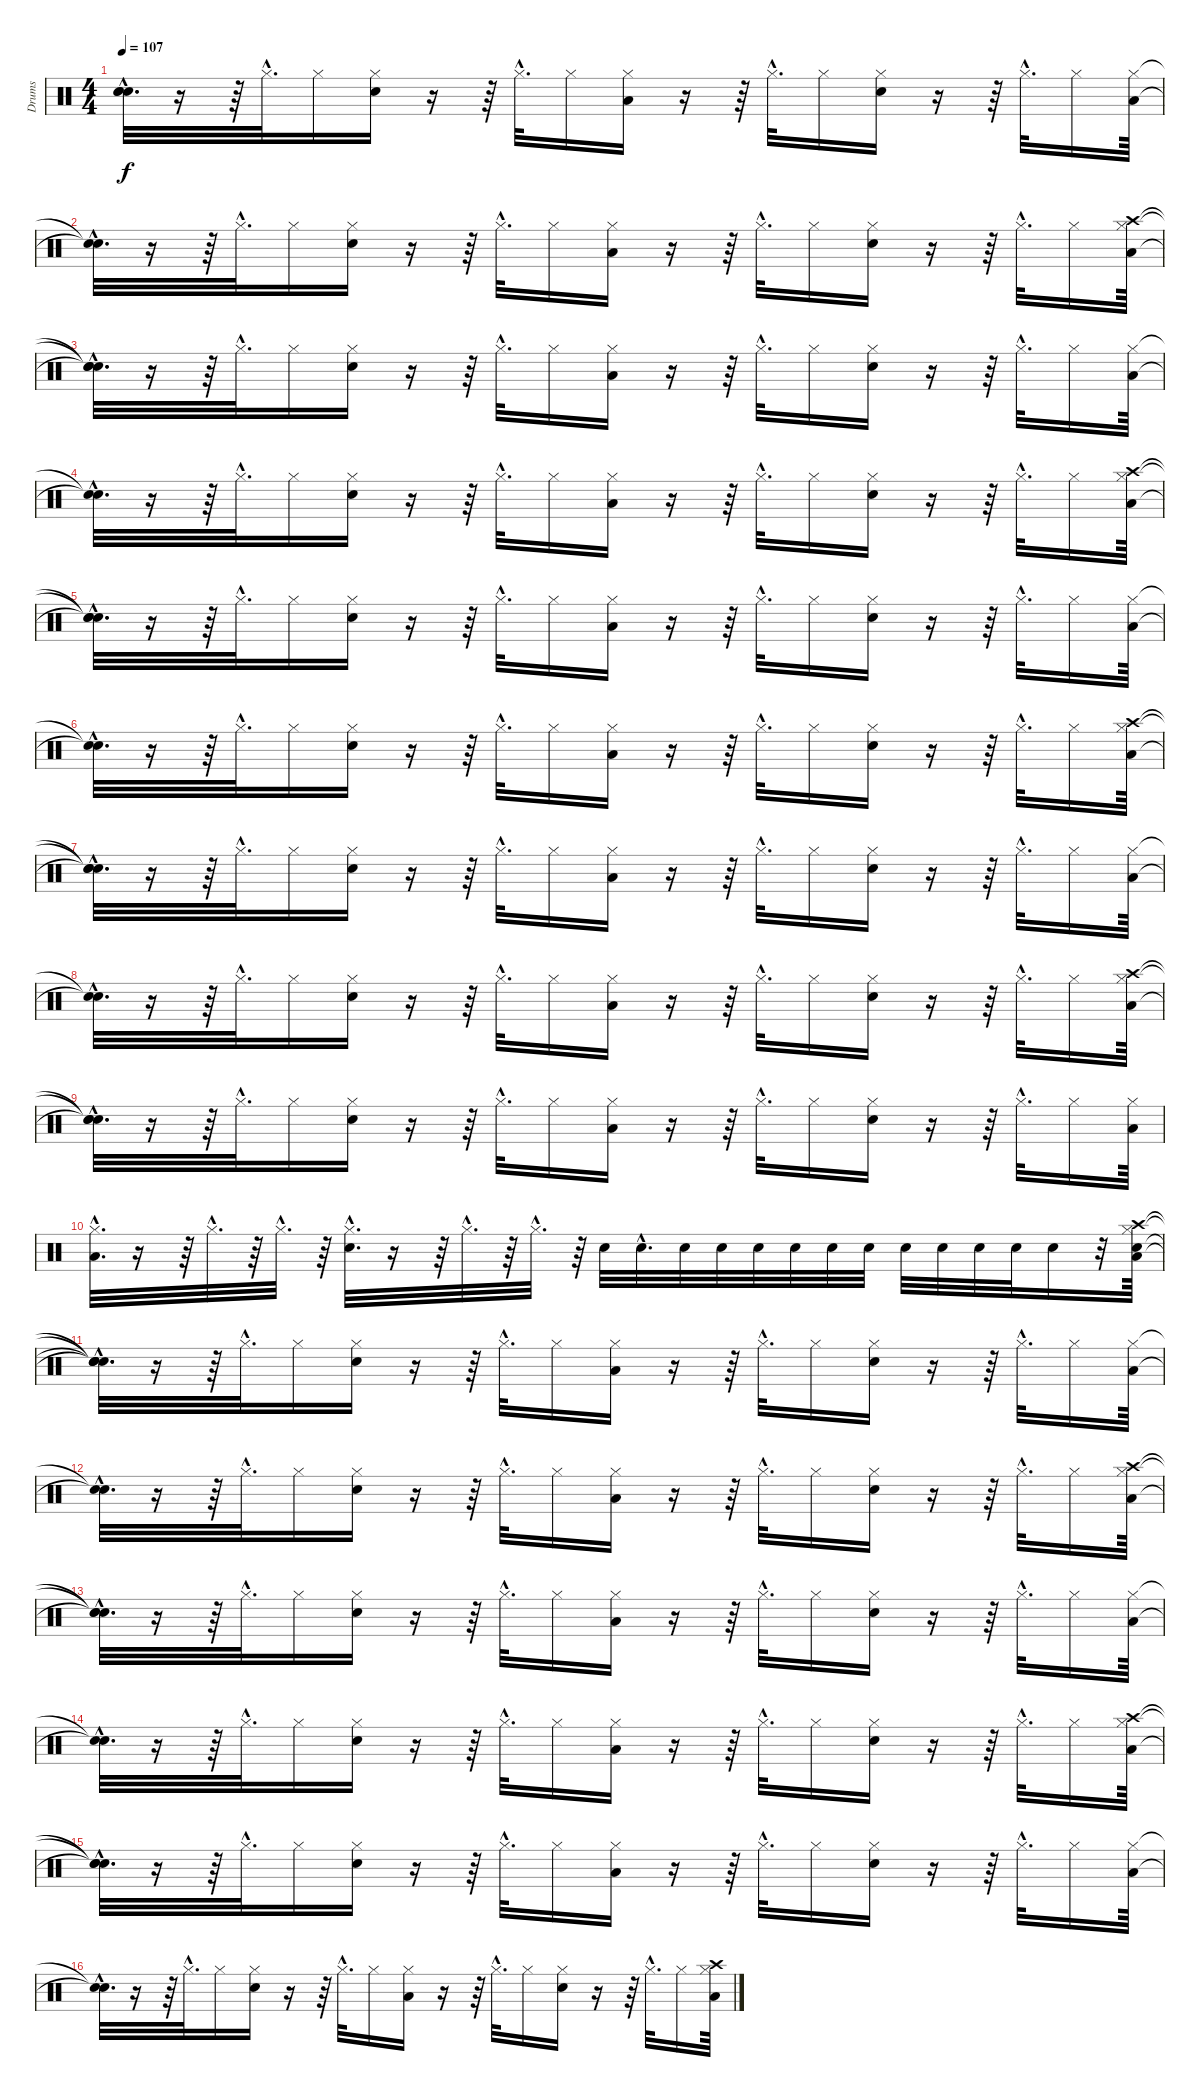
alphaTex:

\track ("Drums" "Drums") {instrument percussion}
\staff {score}
\articulation defaults
\ts (4 4)
\tempo 107
\clef neutral
\ks c
("Snare (hit)"{hac t} "Snare (hit)"{hac t} "Snare (hit)"{hac t}).32{d dy f} r.16 r.64 "Hi-Hat (closed)"{hac}.32{d} "Hi-Hat (closed)".16 ("Hi-Hat (closed)" "Snare (hit) 2").16 r.16 r.64 "Hi-Hat (closed)"{hac}.32{d} "Hi-Hat (closed)".16 ("Hi-Hat (closed)" "Low Tom (hit)").16 r.16 r.64 "Hi-Hat (closed)"{hac}.32{d} "Hi-Hat (closed)".16 ("Hi-Hat (closed)" "Snare (hit) 2").16 r.16 r.64 "Hi-Hat (closed)"{hac}.32{d} "Hi-Hat (closed)".16 ("Hi-Hat (closed)" "Low Tom (hit)").64 |
("Snare (hit)"{hac t} "Snare (hit)"{hac t}).32{d} r.16 r.64 "Hi-Hat (closed)"{hac}.32{d} "Hi-Hat (closed)".16 ("Hi-Hat (closed)" "Snare (hit) 2").16 r.16 r.64 "Hi-Hat (closed)"{hac}.32{d} "Hi-Hat (closed)".16 ("Hi-Hat (closed)" "Low Tom (hit)").16 r.16 r.64 "Hi-Hat (closed)"{hac}.32{d} "Hi-Hat (closed)".16 ("Hi-Hat (closed)" "Snare (hit) 2").16 r.16 r.64 "Hi-Hat (closed)"{hac}.32{d} "Hi-Hat (closed)".16 ("Hi-Hat (closed)" "Crash high (hit)" "Low Tom (hit)").64 |
("Snare (hit)"{hac t} "Snare (hit)"{hac t} "Snare (hit)"{hac t}).32{d} r.16 r.64 "Hi-Hat (closed)"{hac}.32{d} "Hi-Hat (closed)".16 ("Hi-Hat (closed)" "Snare (hit) 2").16 r.16 r.64 "Hi-Hat (closed)"{hac}.32{d} "Hi-Hat (closed)".16 ("Hi-Hat (closed)" "Low Tom (hit)").16 r.16 r.64 "Hi-Hat (closed)"{hac}.32{d} "Hi-Hat (closed)".16 ("Hi-Hat (closed)" "Snare (hit) 2").16 r.16 r.64 "Hi-Hat (closed)"{hac}.32{d} "Hi-Hat (closed)".16 ("Hi-Hat (closed)" "Low Tom (hit)").64 |
("Snare (hit)"{hac t} "Snare (hit)"{hac t}).32{d} r.16 r.64 "Hi-Hat (closed)"{hac}.32{d} "Hi-Hat (closed)".16 ("Hi-Hat (closed)" "Snare (hit) 2").16 r.16 r.64 "Hi-Hat (closed)"{hac}.32{d} "Hi-Hat (closed)".16 ("Hi-Hat (closed)" "Low Tom (hit)").16 r.16 r.64 "Hi-Hat (closed)"{hac}.32{d} "Hi-Hat (closed)".16 ("Hi-Hat (closed)" "Snare (hit) 2").16 r.16 r.64 "Hi-Hat (closed)"{hac}.32{d} "Hi-Hat (closed)".16 ("Hi-Hat (closed)" "Crash high (hit)" "Low Tom (hit)").64 |
("Snare (hit)"{hac t} "Snare (hit)"{hac t} "Snare (hit)"{hac t}).32{d} r.16 r.64 "Hi-Hat (closed)"{hac}.32{d} "Hi-Hat (closed)".16 ("Hi-Hat (closed)" "Snare (hit) 2").16 r.16 r.64 "Hi-Hat (closed)"{hac}.32{d} "Hi-Hat (closed)".16 ("Hi-Hat (closed)" "Low Tom (hit)").16 r.16 r.64 "Hi-Hat (closed)"{hac}.32{d} "Hi-Hat (closed)".16 ("Hi-Hat (closed)" "Snare (hit) 2").16 r.16 r.64 "Hi-Hat (closed)"{hac}.32{d} "Hi-Hat (closed)".16 ("Hi-Hat (closed)" "Low Tom (hit)").64 |
("Snare (hit)"{hac t} "Snare (hit)"{hac t}).32{d} r.16 r.64 "Hi-Hat (closed)"{hac}.32{d} "Hi-Hat (closed)".16 ("Hi-Hat (closed)" "Snare (hit) 2").16 r.16 r.64 "Hi-Hat (closed)"{hac}.32{d} "Hi-Hat (closed)".16 ("Hi-Hat (closed)" "Low Tom (hit)").16 r.16 r.64 "Hi-Hat (closed)"{hac}.32{d} "Hi-Hat (closed)".16 ("Hi-Hat (closed)" "Snare (hit) 2").16 r.16 r.64 "Hi-Hat (closed)"{hac}.32{d} "Hi-Hat (closed)".16 ("Hi-Hat (closed)" "Crash high (hit)" "Low Tom (hit)").64 |
("Snare (hit)"{hac t} "Snare (hit)"{hac t} "Snare (hit)"{hac t}).32{d} r.16 r.64 "Hi-Hat (closed)"{hac}.32{d} "Hi-Hat (closed)".16 ("Hi-Hat (closed)" "Snare (hit) 2").16 r.16 r.64 "Hi-Hat (closed)"{hac}.32{d} "Hi-Hat (closed)".16 ("Hi-Hat (closed)" "Low Tom (hit)").16 r.16 r.64 "Hi-Hat (closed)"{hac}.32{d} "Hi-Hat (closed)".16 ("Hi-Hat (closed)" "Snare (hit) 2").16 r.16 r.64 "Hi-Hat (closed)"{hac}.32{d} "Hi-Hat (closed)".16 ("Hi-Hat (closed)" "Low Tom (hit)").64 |
("Snare (hit)"{hac t} "Snare (hit)"{hac t}).32{d} r.16 r.64 "Hi-Hat (closed)"{hac}.32{d} "Hi-Hat (closed)".16 ("Hi-Hat (closed)" "Snare (hit) 2").16 r.16 r.64 "Hi-Hat (closed)"{hac}.32{d} "Hi-Hat (closed)".16 ("Hi-Hat (closed)" "Low Tom (hit)").16 r.16 r.64 "Hi-Hat (closed)"{hac}.32{d} "Hi-Hat (closed)".16 ("Hi-Hat (closed)" "Snare (hit) 2").16 r.16 r.64 "Hi-Hat (closed)"{hac}.32{d} "Hi-Hat (closed)".16 ("Hi-Hat (closed)" "Crash high (hit)" "Low Tom (hit)").64 |
("Snare (hit)"{hac t} "Snare (hit)"{hac t} "Snare (hit)"{hac t}).32{d} r.16 r.64 "Hi-Hat (closed)"{hac}.32{d} "Hi-Hat (closed)".16 ("Hi-Hat (closed)" "Snare (hit) 2").16 r.16 r.64 "Hi-Hat (closed)"{hac}.32{d} "Hi-Hat (closed)".16 ("Hi-Hat (closed)" "Low Tom (hit)").16 r.16 r.64 "Hi-Hat (closed)"{hac}.32{d} "Hi-Hat (closed)".16 ("Hi-Hat (closed)" "Snare (hit) 2").16 r.16 r.64 "Hi-Hat (closed)"{hac}.32{d} "Hi-Hat (closed)".16 ("Hi-Hat (closed)" "Low Tom (hit)").64 |
("Hi-Hat (closed)"{hac} "Low Tom (hit)"{hac}).32{d} r.16 r.64 "Hi-Hat (closed)"{hac}.32{d} r.64 "Hi-Hat (closed)"{hac}.32{d} r.64 ("Hi-Hat (closed)"{hac} "Snare (hit) 2"{hac}).32{d} r.16 r.64 "Hi-Hat (closed)"{hac}.32{d} r.64 "Hi-Hat (closed)"{hac}.32{d} r.64 "Snare (hit) 2".32 "Snare (hit) 2"{hac}.32{d} "Snare (hit) 2".32 "Snare (hit) 2".32 "Snare (hit) 2".32 "Snare (hit) 2".32 "Snare (hit) 2".32 "Snare (hit) 2".32 "Snare (hit) 2".32 "Snare (hit) 2".32 "Snare (hit) 2".32 "Snare (hit) 2".32 "Snare (hit) 2".16 r.32 ("Hi-Hat (closed)" "Crash high (hit)" "Low Tom (hit)" "Snare (hit) 2").64 |
("Snare (hit)"{hac t} "Snare (hit)"{hac t} "Snare (hit)"{hac t} "Snare (hit)"{hac t}).32{d} r.16 r.64 "Hi-Hat (closed)"{hac}.32{d} "Hi-Hat (closed)".16 ("Hi-Hat (closed)" "Snare (hit) 2").16 r.16 r.64 "Hi-Hat (closed)"{hac}.32{d} "Hi-Hat (closed)".16 ("Hi-Hat (closed)" "Low Tom (hit)").16 r.16 r.64 "Hi-Hat (closed)"{hac}.32{d} "Hi-Hat (closed)".16 ("Hi-Hat (closed)" "Snare (hit) 2").16 r.16 r.64 "Hi-Hat (closed)"{hac}.32{d} "Hi-Hat (closed)".16 ("Hi-Hat (closed)" "Low Tom (hit)").64 |
("Snare (hit)"{hac t} "Snare (hit)"{hac t}).32{d} r.16 r.64 "Hi-Hat (closed)"{hac}.32{d} "Hi-Hat (closed)".16 ("Hi-Hat (closed)" "Snare (hit) 2").16 r.16 r.64 "Hi-Hat (closed)"{hac}.32{d} "Hi-Hat (closed)".16 ("Hi-Hat (closed)" "Low Tom (hit)").16 r.16 r.64 "Hi-Hat (closed)"{hac}.32{d} "Hi-Hat (closed)".16 ("Hi-Hat (closed)" "Snare (hit) 2").16 r.16 r.64 "Hi-Hat (closed)"{hac}.32{d} "Hi-Hat (closed)".16 ("Hi-Hat (closed)" "Crash high (hit)" "Low Tom (hit)").64 |
("Snare (hit)"{hac t} "Snare (hit)"{hac t} "Snare (hit)"{hac t}).32{d} r.16 r.64 "Hi-Hat (closed)"{hac}.32{d} "Hi-Hat (closed)".16 ("Hi-Hat (closed)" "Snare (hit) 2").16 r.16 r.64 "Hi-Hat (closed)"{hac}.32{d} "Hi-Hat (closed)".16 ("Hi-Hat (closed)" "Low Tom (hit)").16 r.16 r.64 "Hi-Hat (closed)"{hac}.32{d} "Hi-Hat (closed)".16 ("Hi-Hat (closed)" "Snare (hit) 2").16 r.16 r.64 "Hi-Hat (closed)"{hac}.32{d} "Hi-Hat (closed)".16 ("Hi-Hat (closed)" "Low Tom (hit)").64 |
("Snare (hit)"{hac t} "Snare (hit)"{hac t}).32{d} r.16 r.64 "Hi-Hat (closed)"{hac}.32{d} "Hi-Hat (closed)".16 ("Hi-Hat (closed)" "Snare (hit) 2").16 r.16 r.64 "Hi-Hat (closed)"{hac}.32{d} "Hi-Hat (closed)".16 ("Hi-Hat (closed)" "Low Tom (hit)").16 r.16 r.64 "Hi-Hat (closed)"{hac}.32{d} "Hi-Hat (closed)".16 ("Hi-Hat (closed)" "Snare (hit) 2").16 r.16 r.64 "Hi-Hat (closed)"{hac}.32{d} "Hi-Hat (closed)".16 ("Hi-Hat (closed)" "Crash high (hit)" "Low Tom (hit)").64 |
("Snare (hit)"{hac t} "Snare (hit)"{hac t} "Snare (hit)"{hac t}).32{d} r.16 r.64 "Hi-Hat (closed)"{hac}.32{d} "Hi-Hat (closed)".16 ("Hi-Hat (closed)" "Snare (hit) 2").16 r.16 r.64 "Hi-Hat (closed)"{hac}.32{d} "Hi-Hat (closed)".16 ("Hi-Hat (closed)" "Low Tom (hit)").16 r.16 r.64 "Hi-Hat (closed)"{hac}.32{d} "Hi-Hat (closed)".16 ("Hi-Hat (closed)" "Snare (hit) 2").16 r.16 r.64 "Hi-Hat (closed)"{hac}.32{d} "Hi-Hat (closed)".16 ("Hi-Hat (closed)" "Low Tom (hit)").64 |
("Snare (hit)"{hac t} "Snare (hit)"{hac t}).32{d} r.16 r.64 "Hi-Hat (closed)"{hac}.32{d} "Hi-Hat (closed)".16 ("Hi-Hat (closed)" "Snare (hit) 2").16 r.16 r.64 "Hi-Hat (closed)"{hac}.32{d} "Hi-Hat (closed)".16 ("Hi-Hat (closed)" "Low Tom (hit)").16 r.16 r.64 "Hi-Hat (closed)"{hac}.32{d} "Hi-Hat (closed)".16 ("Hi-Hat (closed)" "Snare (hit) 2").16 r.16 r.64 "Hi-Hat (closed)"{hac}.32{d} "Hi-Hat (closed)".16 ("Hi-Hat (closed)" "Crash high (hit)" "Low Tom (hit)").64
